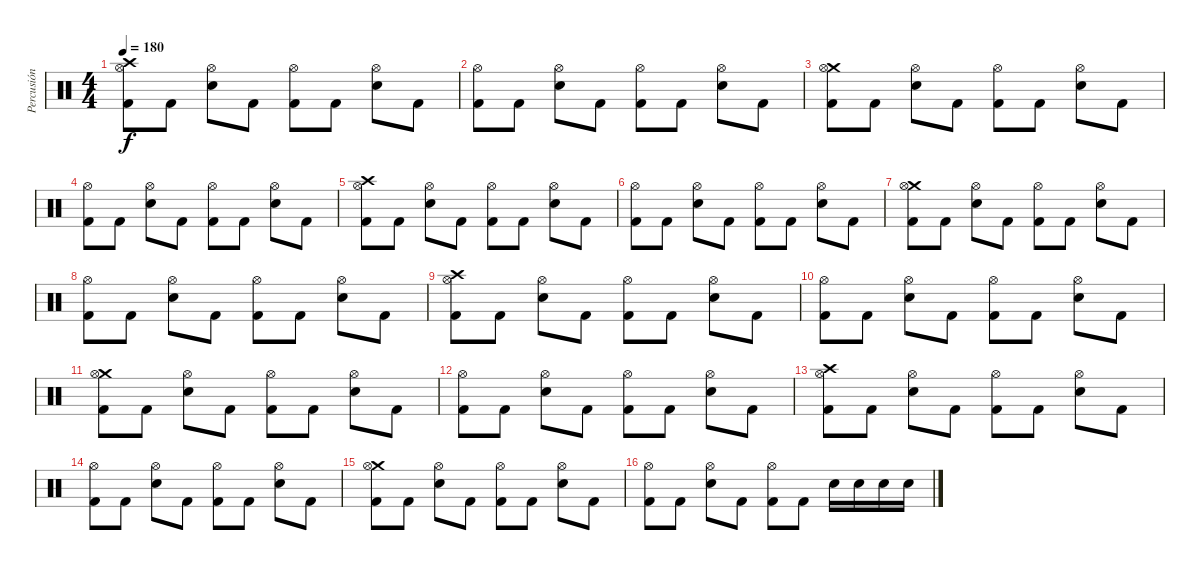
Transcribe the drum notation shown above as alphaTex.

\track ("Percusión" "Percusión") {instrument percussion}
\staff {score}
\articulation defaults
\ts (4 4)
\tempo 180
\clef neutral
\ks c
("Crash high (hit)" "Hi-Hat (open)" "Kick (hit) 2").8{dy f} "Kick (hit) 2".8 ("Hi-Hat (open)" "Electric Snare (hit)").8 "Kick (hit) 2".8 ("Hi-Hat (open)" "Kick (hit) 2").8 "Kick (hit) 2".8 ("Hi-Hat (open)" "Electric Snare (hit)").8 "Kick (hit) 2".8 |
("Hi-Hat (open)" "Kick (hit) 2").8 "Kick (hit) 2".8 ("Hi-Hat (open)" "Electric Snare (hit)").8 "Kick (hit) 2".8 ("Hi-Hat (open)" "Kick (hit) 2").8 "Kick (hit) 2".8 ("Hi-Hat (open)" "Electric Snare (hit)").8 "Kick (hit) 2".8 |
("Crash medium (hit)" "Hi-Hat (open)" "Kick (hit) 2").8 "Kick (hit) 2".8 ("Hi-Hat (open)" "Electric Snare (hit)").8 "Kick (hit) 2".8 ("Hi-Hat (open)" "Kick (hit) 2").8 "Kick (hit) 2".8 ("Hi-Hat (open)" "Electric Snare (hit)").8 "Kick (hit) 2".8 |
("Hi-Hat (open)" "Kick (hit) 2").8 "Kick (hit) 2".8 ("Hi-Hat (open)" "Electric Snare (hit)").8 "Kick (hit) 2".8 ("Hi-Hat (open)" "Kick (hit) 2").8 "Kick (hit) 2".8 ("Hi-Hat (open)" "Electric Snare (hit)").8 "Kick (hit) 2".8 |
("Crash high (hit)" "Hi-Hat (open)" "Kick (hit) 2").8 "Kick (hit) 2".8 ("Hi-Hat (open)" "Electric Snare (hit)").8 "Kick (hit) 2".8 ("Hi-Hat (open)" "Kick (hit) 2").8 "Kick (hit) 2".8 ("Hi-Hat (open)" "Electric Snare (hit)").8 "Kick (hit) 2".8 |
("Hi-Hat (open)" "Kick (hit) 2").8 "Kick (hit) 2".8 ("Hi-Hat (open)" "Electric Snare (hit)").8 "Kick (hit) 2".8 ("Hi-Hat (open)" "Kick (hit) 2").8 "Kick (hit) 2".8 ("Hi-Hat (open)" "Electric Snare (hit)").8 "Kick (hit) 2".8 |
("Crash medium (hit)" "Hi-Hat (open)" "Kick (hit) 2").8 "Kick (hit) 2".8 ("Hi-Hat (open)" "Electric Snare (hit)").8 "Kick (hit) 2".8 ("Hi-Hat (open)" "Kick (hit) 2").8 "Kick (hit) 2".8 ("Hi-Hat (open)" "Electric Snare (hit)").8 "Kick (hit) 2".8 |
("Hi-Hat (open)" "Kick (hit) 2").8 "Kick (hit) 2".8 ("Hi-Hat (open)" "Electric Snare (hit)").8 "Kick (hit) 2".8 ("Hi-Hat (open)" "Kick (hit) 2").8 "Kick (hit) 2".8 ("Hi-Hat (open)" "Electric Snare (hit)").8 "Kick (hit) 2".8 |
("Crash high (hit)" "Hi-Hat (open)" "Kick (hit) 2").8 "Kick (hit) 2".8 ("Hi-Hat (open)" "Electric Snare (hit)").8 "Kick (hit) 2".8 ("Hi-Hat (open)" "Kick (hit) 2").8 "Kick (hit) 2".8 ("Hi-Hat (open)" "Electric Snare (hit)").8 "Kick (hit) 2".8 |
("Hi-Hat (open)" "Kick (hit) 2").8 "Kick (hit) 2".8 ("Hi-Hat (open)" "Electric Snare (hit)").8 "Kick (hit) 2".8 ("Hi-Hat (open)" "Kick (hit) 2").8 "Kick (hit) 2".8 ("Hi-Hat (open)" "Electric Snare (hit)").8 "Kick (hit) 2".8 |
("Crash medium (hit)" "Hi-Hat (open)" "Kick (hit) 2").8 "Kick (hit) 2".8 ("Hi-Hat (open)" "Electric Snare (hit)").8 "Kick (hit) 2".8 ("Hi-Hat (open)" "Kick (hit) 2").8 "Kick (hit) 2".8 ("Hi-Hat (open)" "Electric Snare (hit)").8 "Kick (hit) 2".8 |
("Hi-Hat (open)" "Kick (hit) 2").8 "Kick (hit) 2".8 ("Hi-Hat (open)" "Electric Snare (hit)").8 "Kick (hit) 2".8 ("Hi-Hat (open)" "Kick (hit) 2").8 "Kick (hit) 2".8 ("Hi-Hat (open)" "Electric Snare (hit)").8 "Kick (hit) 2".8 |
("Crash high (hit)" "Hi-Hat (open)" "Kick (hit) 2").8 "Kick (hit) 2".8 ("Hi-Hat (open)" "Electric Snare (hit)").8 "Kick (hit) 2".8 ("Hi-Hat (open)" "Kick (hit) 2").8 "Kick (hit) 2".8 ("Hi-Hat (open)" "Electric Snare (hit)").8 "Kick (hit) 2".8 |
("Hi-Hat (open)" "Kick (hit) 2").8 "Kick (hit) 2".8 ("Hi-Hat (open)" "Electric Snare (hit)").8 "Kick (hit) 2".8 ("Hi-Hat (open)" "Kick (hit) 2").8 "Kick (hit) 2".8 ("Hi-Hat (open)" "Electric Snare (hit)").8 "Kick (hit) 2".8 |
("Crash medium (hit)" "Hi-Hat (open)" "Kick (hit) 2").8 "Kick (hit) 2".8 ("Hi-Hat (open)" "Electric Snare (hit)").8 "Kick (hit) 2".8 ("Hi-Hat (open)" "Kick (hit) 2").8 "Kick (hit) 2".8 ("Hi-Hat (open)" "Electric Snare (hit)").8 "Kick (hit) 2".8 |
("Hi-Hat (open)" "Kick (hit) 2").8 "Kick (hit) 2".8 ("Hi-Hat (open)" "Electric Snare (hit)").8 "Kick (hit) 2".8 ("Hi-Hat (open)" "Kick (hit) 2").8 "Kick (hit) 2".8 "Electric Snare (hit)".16 "Electric Snare (hit)".16 "Electric Snare (hit)".16 "Electric Snare (hit)".16
